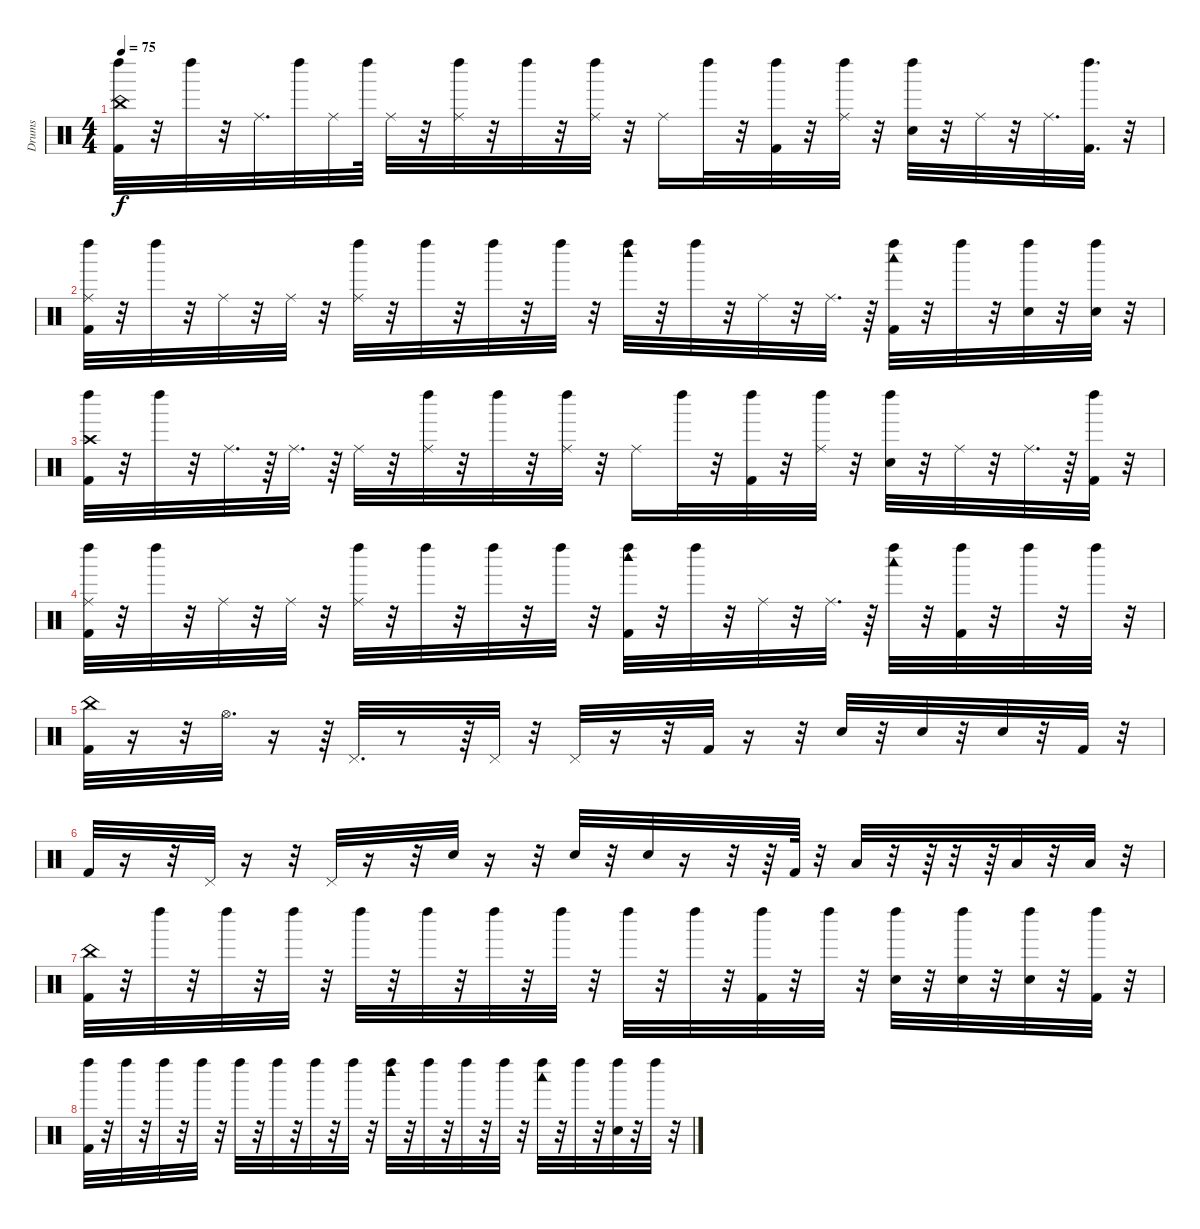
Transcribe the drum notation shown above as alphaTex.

\track ("Drums" "Drums") {instrument percussion}
\staff {score}
\articulation defaults
\ts (4 4)
\tempo 75
\clef neutral
\ks c
("China (hit)" "Kick (hit) 2" "Left Maraca (hit)").32{dy f} r.32 "Left Maraca (hit)".32 r.32 "Ride (middle)".32{d} "Left Maraca (hit)".32 "Ride (middle)".32 "Left Maraca (hit)".64 "Ride (middle)".32 r.32 ("Ride (middle)" "Left Maraca (hit)").32 r.32 "Left Maraca (hit)".32 r.32 ("Ride (middle)" "Left Maraca (hit)").32 r.32 "Ride (middle)".16 "Left Maraca (hit)".32 r.32 ("Kick (hit) 2" "Left Maraca (hit)").32 r.32 ("Ride (middle)" "Left Maraca (hit)").32 r.32 ("Snare (hit) 2" "Left Maraca (hit)").32 r.32 "Ride (middle)".32 r.32 "Ride (middle)".32{d} ("Kick (hit) 2" "Left Maraca (hit)").32{d} r.32 |
("Ride (middle)" "Kick (hit) 2" "Left Maraca (hit)").32 r.32 "Left Maraca (hit)".32 r.32 "Ride (middle)".32 r.32 "Ride (middle)".32 r.32 ("Ride (middle)" "Left Maraca (hit)").32 r.32 "Left Maraca (hit)".32 r.32 "Left Maraca (hit)".32 r.32 "Left Maraca (hit)".32 r.32 ("Woodblock high (hit)" "Left Maraca (hit)").32 r.32 "Left Maraca (hit)".32 r.32 "Ride (middle)".32 r.32 "Ride (middle)".32{d} r.64 ("Kick (hit) 2" "Woodblock low (hit)" "Left Maraca (hit)").32 r.32 "Left Maraca (hit)".32 r.32 ("Snare (hit) 2" "Left Maraca (hit)").32 r.32 ("Snare (hit) 2" "Left Maraca (hit)").32 r.32 |
("Crash high (hit)" "Kick (hit) 2" "Left Maraca (hit)").32 r.32 "Left Maraca (hit)".32 r.32 "Ride (middle)".32{d} r.64 "Ride (middle)".32{d} r.64 "Ride (middle)".32 r.32 ("Ride (middle)" "Left Maraca (hit)").32 r.32 "Left Maraca (hit)".32 r.32 ("Ride (middle)" "Left Maraca (hit)").32 r.32 "Ride (middle)".16 "Left Maraca (hit)".32 r.32 ("Kick (hit) 2" "Left Maraca (hit)").32 r.32 ("Ride (middle)" "Left Maraca (hit)").32 r.32 ("Snare (hit) 2" "Left Maraca (hit)").32 r.32 "Ride (middle)".32 r.32 "Ride (middle)".32{d} r.64 ("Kick (hit) 2" "Left Maraca (hit)").32 r.32 |
("Ride (middle)" "Kick (hit) 2" "Left Maraca (hit)").32 r.32 "Left Maraca (hit)".32 r.32 "Ride (middle)".32 r.32 "Ride (middle)".32 r.32 ("Ride (middle)" "Left Maraca (hit)").32 r.32 "Left Maraca (hit)".32 r.32 "Left Maraca (hit)".32 r.32 "Left Maraca (hit)".32 r.32 ("Kick (hit) 2" "Woodblock high (hit)" "Left Maraca (hit)").32 r.32 "Left Maraca (hit)".32 r.32 "Ride (middle)".32 r.32 "Ride (middle)".32{d} r.64 ("Woodblock low (hit)" "Left Maraca (hit)").32 r.32 ("Kick (hit) 2" "Left Maraca (hit)").32 r.32 "Left Maraca (hit)".32 r.32 "Left Maraca (hit)".32 r.32 |
("China (hit)" "Kick (hit) 2").32 r.16 r.32 "Hi-Hat (open)".32{d} r.16 r.64 "Pedal Hi-Hat (hit)".32{d} r.8 r.64 "Pedal Hi-Hat (hit)".32 r.32 "Pedal Hi-Hat (hit)".32 r.16 r.32 "Kick (hit) 2".32 r.16 r.32 "Snare (hit) 2".32 r.32 "Snare (hit) 2".32 r.32 "Snare (hit) 2".32 r.32 "Kick (hit) 2".32 r.32 |
"Kick (hit) 2".32 r.16 r.32 "Pedal Hi-Hat (hit)".32 r.16 r.32 "Pedal Hi-Hat (hit)".32 r.16 r.32 "Snare (hit) 2".32 r.16 r.32 "Snare (hit) 2".32 r.32 "Snare (hit) 2".32 r.16 r.32 r.64 "Kick (hit) 2".64 r.32 "Low Tom (hit)".32 r.32 r.64 r.32 r.64 "Low Tom (hit)".32 r.32 "Low Tom (hit)".32 r.32 |
("China (hit)" "Kick (hit) 2").32 r.32 "Left Maraca (hit)".32 r.32 "Left Maraca (hit)".32 r.32 "Left Maraca (hit)".32 r.32 "Left Maraca (hit)".32 r.32 "Left Maraca (hit)".32 r.32 "Left Maraca (hit)".32 r.32 "Left Maraca (hit)".32 r.32 "Left Maraca (hit)".32 r.32 "Left Maraca (hit)".32 r.32 ("Kick (hit) 2" "Left Maraca (hit)").32 r.32 "Left Maraca (hit)".32 r.32 ("Snare (hit) 2" "Left Maraca (hit)").32 r.32 ("Snare (hit) 2" "Left Maraca (hit)").32 r.32 ("Snare (hit) 2" "Left Maraca (hit)").32 r.32 ("Kick (hit) 2" "Left Maraca (hit)").32 r.32 |
("Kick (hit) 2" "Left Maraca (hit)").32 r.32 "Left Maraca (hit)".32 r.32 "Left Maraca (hit)".32 r.32 "Left Maraca (hit)".32 r.32 "Left Maraca (hit)".32 r.32 "Left Maraca (hit)".32 r.32 "Left Maraca (hit)".32 r.32 "Left Maraca (hit)".32 r.32 ("Woodblock high (hit)" "Left Maraca (hit)").32 r.32 "Left Maraca (hit)".32 r.32 "Left Maraca (hit)".32 r.32 "Left Maraca (hit)".32 r.32 ("Woodblock low (hit)" "Left Maraca (hit)").32 r.32 "Left Maraca (hit)".32 r.32 ("Hand Clap (hit)" "Left Maraca (hit)").32 r.32 "Left Maraca (hit)".32 r.32
